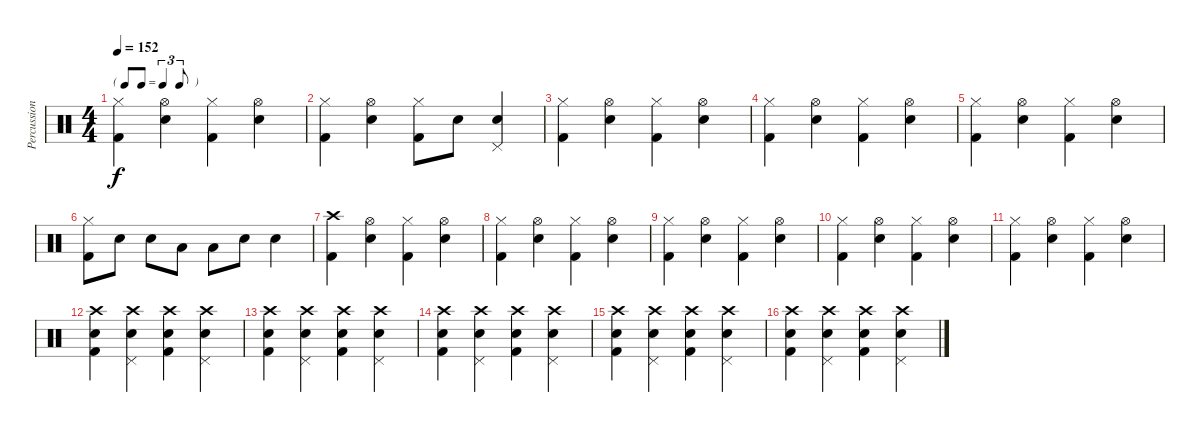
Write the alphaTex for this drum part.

\track ("Percussion" "Percussion") {instrument percussion}
\staff {score}
\articulation defaults
\ts (4 4)
\tf triplet8th
\tempo 152
\clef neutral
\ks c
("Hi-Hat (closed)" "Kick (hit) 2").4{dy f} ("Hi-Hat (open)" "Snare (hit) 2").4 ("Hi-Hat (closed)" "Kick (hit) 2").4 ("Hi-Hat (open)" "Snare (hit) 2").4 |
("Hi-Hat (closed)" "Kick (hit) 2").4 ("Hi-Hat (open)" "Snare (hit) 2").4 ("Hi-Hat (closed)" "Kick (hit) 2").8 "Snare (hit) 2".8 ("Snare (hit) 2" "Pedal Hi-Hat (hit)").4 |
("Hi-Hat (closed)" "Kick (hit) 2").4 ("Hi-Hat (open)" "Snare (hit) 2").4 ("Hi-Hat (closed)" "Kick (hit) 2").4 ("Hi-Hat (open)" "Snare (hit) 2").4 |
("Hi-Hat (closed)" "Kick (hit) 2").4 ("Hi-Hat (open)" "Snare (hit) 2").4 ("Hi-Hat (closed)" "Kick (hit) 2").4 ("Hi-Hat (open)" "Snare (hit) 2").4 |
("Hi-Hat (closed)" "Kick (hit) 2").4 ("Hi-Hat (open)" "Snare (hit) 2").4 ("Hi-Hat (closed)" "Kick (hit) 2").4 ("Hi-Hat (open)" "Snare (hit) 2").4 |
("Hi-Hat (closed)" "Kick (hit) 2").8 "Snare (hit) 2".8 "Snare (hit) 2".8 "Low Tom (hit)".8 "Low Tom (hit)".8 "Snare (hit) 2".8 "Snare (hit) 2".4 |
("Crash high (hit)" "Kick (hit) 2").4 ("Hi-Hat (open)" "Snare (hit) 2").4 ("Hi-Hat (closed)" "Kick (hit) 2").4 ("Hi-Hat (open)" "Snare (hit) 2").4 |
("Hi-Hat (closed)" "Kick (hit) 2").4 ("Hi-Hat (open)" "Snare (hit) 2").4 ("Hi-Hat (closed)" "Kick (hit) 2").4 ("Hi-Hat (open)" "Snare (hit) 2").4 |
("Hi-Hat (closed)" "Kick (hit) 2").4 ("Hi-Hat (open)" "Snare (hit) 2").4 ("Hi-Hat (closed)" "Kick (hit) 2").4 ("Hi-Hat (open)" "Snare (hit) 2").4 |
("Hi-Hat (closed)" "Kick (hit) 2").4 ("Hi-Hat (open)" "Snare (hit) 2").4 ("Hi-Hat (closed)" "Kick (hit) 2").4 ("Hi-Hat (open)" "Snare (hit) 2").4 |
("Hi-Hat (closed)" "Kick (hit) 2").4 ("Hi-Hat (open)" "Snare (hit) 2").4 ("Hi-Hat (closed)" "Kick (hit) 2").4 ("Hi-Hat (open)" "Snare (hit) 2").4 |
("Crash high (hit)" "Snare (hit) 2" "Kick (hit) 2").4 ("Crash high (hit)" "Snare (hit) 2" "Pedal Hi-Hat (hit)").4 ("Crash high (hit)" "Snare (hit) 2" "Kick (hit) 2").4 ("Crash high (hit)" "Snare (hit) 2" "Pedal Hi-Hat (hit)").4 |
("Crash high (hit)" "Snare (hit) 2" "Kick (hit) 2").4 ("Crash high (hit)" "Snare (hit) 2" "Pedal Hi-Hat (hit)").4 ("Crash high (hit)" "Snare (hit) 2" "Kick (hit) 2").4 ("Crash high (hit)" "Snare (hit) 2" "Pedal Hi-Hat (hit)").4 |
("Crash high (hit)" "Snare (hit) 2" "Kick (hit) 2").4 ("Crash high (hit)" "Snare (hit) 2" "Pedal Hi-Hat (hit)").4 ("Crash high (hit)" "Snare (hit) 2" "Kick (hit) 2").4 ("Crash high (hit)" "Snare (hit) 2" "Pedal Hi-Hat (hit)").4 |
("Crash high (hit)" "Snare (hit) 2" "Kick (hit) 2").4 ("Crash high (hit)" "Snare (hit) 2" "Pedal Hi-Hat (hit)").4 ("Crash high (hit)" "Snare (hit) 2" "Kick (hit) 2").4 ("Crash high (hit)" "Snare (hit) 2" "Pedal Hi-Hat (hit)").4 |
("Crash high (hit)" "Snare (hit) 2" "Kick (hit) 2").4 ("Crash high (hit)" "Snare (hit) 2" "Pedal Hi-Hat (hit)").4 ("Crash high (hit)" "Snare (hit) 2" "Kick (hit) 2").4 ("Crash high (hit)" "Snare (hit) 2" "Pedal Hi-Hat (hit)").4
